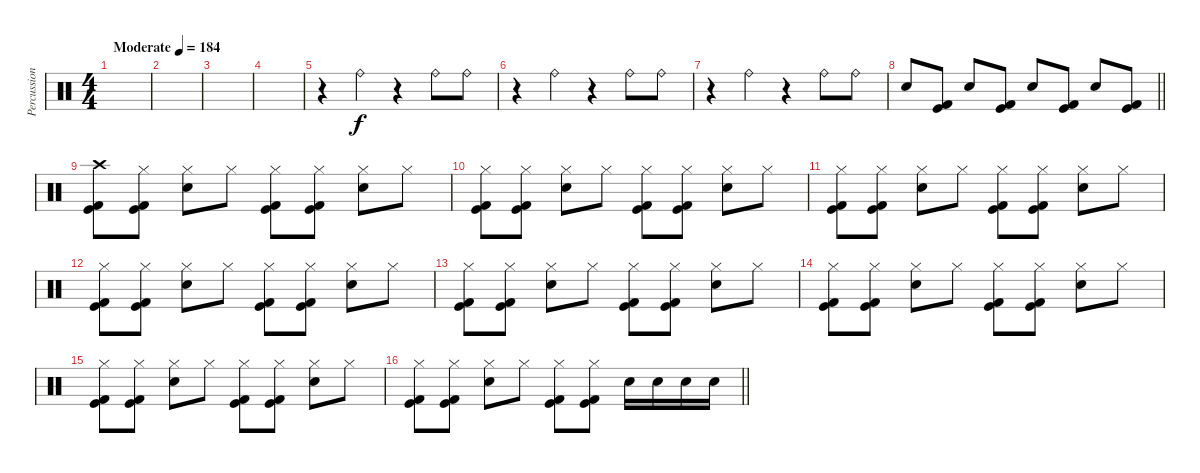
\track ("Percussion" "Percussion") {instrument percussion}
\staff {score}
\articulation defaults
\ts (4 4)
\tempo (184 "Moderate")
\clef neutral
\ks c
|
|
|
|
r.4 "Ride (bell)".4 r.4 "Ride (bell)".8 "Ride (bell)".8 |
r.4 "Ride (bell)".4 r.4 "Ride (bell)".8 "Ride (bell)".8 |
r.4 "Ride (bell)".4 r.4 "Ride (bell)".8 "Ride (bell)".8 |
\barLineRight lightlight "Electric Snare (hit)".8
("Kick (hit)" "Kick (hit) 2").8 "Electric Snare (hit)".8 ("Kick (hit)" "Kick (hit) 2").8 "Electric Snare (hit)".8 ("Kick (hit)" "Kick (hit) 2").8 "Electric Snare (hit)".8 ("Kick (hit)" "Kick (hit) 2").8 |
\section ("" "")
("Crash high (hit)" "Kick (hit)" "Kick (hit) 2").8 ("Hi-Hat (closed)" "Kick (hit)" "Kick (hit) 2").8 ("Hi-Hat (closed)" "Electric Snare (hit)").8 "Hi-Hat (closed)".8 ("Hi-Hat (closed)" "Kick (hit)" "Kick (hit) 2").8 ("Hi-Hat (closed)" "Kick (hit)" "Kick (hit) 2").8 ("Hi-Hat (closed)" "Electric Snare (hit)").8 "Hi-Hat (closed)".8 |
("Hi-Hat (closed)" "Kick (hit)" "Kick (hit) 2").8 ("Hi-Hat (closed)" "Kick (hit)" "Kick (hit) 2").8 ("Hi-Hat (closed)" "Electric Snare (hit)").8 "Hi-Hat (closed)".8 ("Hi-Hat (closed)" "Kick (hit)" "Kick (hit) 2").8 ("Hi-Hat (closed)" "Kick (hit)" "Kick (hit) 2").8 ("Hi-Hat (closed)" "Electric Snare (hit)").8 "Hi-Hat (closed)".8 |
("Hi-Hat (closed)" "Kick (hit)" "Kick (hit) 2").8 ("Hi-Hat (closed)" "Kick (hit)" "Kick (hit) 2").8 ("Hi-Hat (closed)" "Electric Snare (hit)").8 "Hi-Hat (closed)".8 ("Hi-Hat (closed)" "Kick (hit)" "Kick (hit) 2").8 ("Hi-Hat (closed)" "Kick (hit)" "Kick (hit) 2").8 ("Hi-Hat (closed)" "Electric Snare (hit)").8 "Hi-Hat (closed)".8 |
("Hi-Hat (closed)" "Kick (hit)" "Kick (hit) 2").8 ("Hi-Hat (closed)" "Kick (hit)" "Kick (hit) 2").8 ("Hi-Hat (closed)" "Electric Snare (hit)").8 "Hi-Hat (closed)".8 ("Hi-Hat (closed)" "Kick (hit)" "Kick (hit) 2").8 ("Hi-Hat (closed)" "Kick (hit)" "Kick (hit) 2").8 ("Hi-Hat (closed)" "Electric Snare (hit)").8 "Hi-Hat (closed)".8 |
("Hi-Hat (closed)" "Kick (hit)" "Kick (hit) 2").8 ("Hi-Hat (closed)" "Kick (hit)" "Kick (hit) 2").8 ("Hi-Hat (closed)" "Electric Snare (hit)").8 "Hi-Hat (closed)".8 ("Hi-Hat (closed)" "Kick (hit)" "Kick (hit) 2").8 ("Hi-Hat (closed)" "Kick (hit)" "Kick (hit) 2").8 ("Hi-Hat (closed)" "Electric Snare (hit)").8 "Hi-Hat (closed)".8 |
("Hi-Hat (closed)" "Kick (hit)" "Kick (hit) 2").8 ("Hi-Hat (closed)" "Kick (hit)" "Kick (hit) 2").8 ("Hi-Hat (closed)" "Electric Snare (hit)").8 "Hi-Hat (closed)".8 ("Hi-Hat (closed)" "Kick (hit)" "Kick (hit) 2").8 ("Hi-Hat (closed)" "Kick (hit)" "Kick (hit) 2").8 ("Hi-Hat (closed)" "Electric Snare (hit)").8 "Hi-Hat (closed)".8 |
("Hi-Hat (closed)" "Kick (hit)" "Kick (hit) 2").8 ("Hi-Hat (closed)" "Kick (hit)" "Kick (hit) 2").8 ("Hi-Hat (closed)" "Electric Snare (hit)").8 "Hi-Hat (closed)".8 ("Hi-Hat (closed)" "Kick (hit)" "Kick (hit) 2").8 ("Hi-Hat (closed)" "Kick (hit)" "Kick (hit) 2").8 ("Hi-Hat (closed)" "Electric Snare (hit)").8 "Hi-Hat (closed)".8 |
\barLineRight lightlight
("Hi-Hat (closed)" "Kick (hit)" "Kick (hit) 2").8 ("Hi-Hat (closed)" "Kick (hit)" "Kick (hit) 2").8 ("Hi-Hat (closed)" "Electric Snare (hit)").8 "Hi-Hat (closed)".8 ("Hi-Hat (closed)" "Kick (hit)" "Kick (hit) 2").8 ("Hi-Hat (closed)" "Kick (hit)" "Kick (hit) 2").8 "Electric Snare (hit)".16 "Electric Snare (hit)".16 "Electric Snare (hit)".16 "Electric Snare (hit)".16
